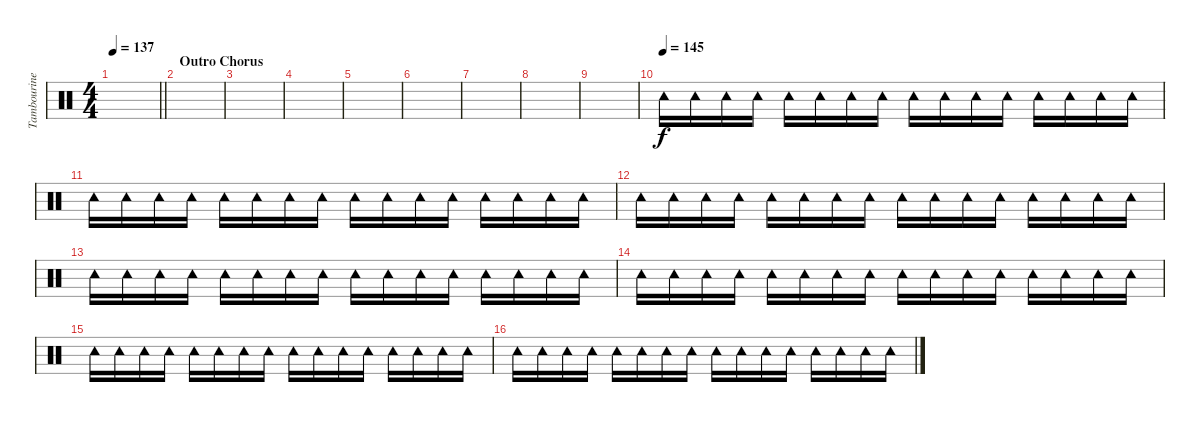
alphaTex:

\track ("Tambourine" "Tambourine") {instrument percussion}
\staff {score}
\articulation defaults
\ts (4 4)
\tempo 137
\clef neutral
\barLineRight lightlight
\ks c
|
\section ("" "Outro Chorus")
|
|
|
|
|
|
|
|
\tempo (145)
"Tambourine (hit)".16 "Tambourine (hit)".16 "Tambourine (hit)".16 "Tambourine (hit)".16 "Tambourine (hit)".16 "Tambourine (hit)".16 "Tambourine (hit)".16 "Tambourine (hit)".16 "Tambourine (hit)".16 "Tambourine (hit)".16 "Tambourine (hit)".16 "Tambourine (hit)".16 "Tambourine (hit)".16 "Tambourine (hit)".16 "Tambourine (hit)".16 "Tambourine (hit)".16 |
"Tambourine (hit)".16 "Tambourine (hit)".16 "Tambourine (hit)".16 "Tambourine (hit)".16 "Tambourine (hit)".16 "Tambourine (hit)".16 "Tambourine (hit)".16 "Tambourine (hit)".16 "Tambourine (hit)".16 "Tambourine (hit)".16 "Tambourine (hit)".16 "Tambourine (hit)".16 "Tambourine (hit)".16 "Tambourine (hit)".16 "Tambourine (hit)".16 "Tambourine (hit)".16 |
"Tambourine (hit)".16 "Tambourine (hit)".16 "Tambourine (hit)".16 "Tambourine (hit)".16 "Tambourine (hit)".16 "Tambourine (hit)".16 "Tambourine (hit)".16 "Tambourine (hit)".16 "Tambourine (hit)".16 "Tambourine (hit)".16 "Tambourine (hit)".16 "Tambourine (hit)".16 "Tambourine (hit)".16 "Tambourine (hit)".16 "Tambourine (hit)".16 "Tambourine (hit)".16 |
"Tambourine (hit)".16 "Tambourine (hit)".16 "Tambourine (hit)".16 "Tambourine (hit)".16 "Tambourine (hit)".16 "Tambourine (hit)".16 "Tambourine (hit)".16 "Tambourine (hit)".16 "Tambourine (hit)".16 "Tambourine (hit)".16 "Tambourine (hit)".16 "Tambourine (hit)".16 "Tambourine (hit)".16 "Tambourine (hit)".16 "Tambourine (hit)".16 "Tambourine (hit)".16 |
"Tambourine (hit)".16 "Tambourine (hit)".16 "Tambourine (hit)".16 "Tambourine (hit)".16 "Tambourine (hit)".16 "Tambourine (hit)".16 "Tambourine (hit)".16 "Tambourine (hit)".16 "Tambourine (hit)".16 "Tambourine (hit)".16 "Tambourine (hit)".16 "Tambourine (hit)".16 "Tambourine (hit)".16 "Tambourine (hit)".16 "Tambourine (hit)".16 "Tambourine (hit)".16 |
"Tambourine (hit)".16 "Tambourine (hit)".16 "Tambourine (hit)".16 "Tambourine (hit)".16 "Tambourine (hit)".16 "Tambourine (hit)".16 "Tambourine (hit)".16 "Tambourine (hit)".16 "Tambourine (hit)".16 "Tambourine (hit)".16 "Tambourine (hit)".16 "Tambourine (hit)".16 "Tambourine (hit)".16 "Tambourine (hit)".16 "Tambourine (hit)".16 "Tambourine (hit)".16 |
"Tambourine (hit)".16 "Tambourine (hit)".16 "Tambourine (hit)".16 "Tambourine (hit)".16 "Tambourine (hit)".16 "Tambourine (hit)".16 "Tambourine (hit)".16 "Tambourine (hit)".16 "Tambourine (hit)".16 "Tambourine (hit)".16 "Tambourine (hit)".16 "Tambourine (hit)".16 "Tambourine (hit)".16 "Tambourine (hit)".16 "Tambourine (hit)".16 "Tambourine (hit)".16
